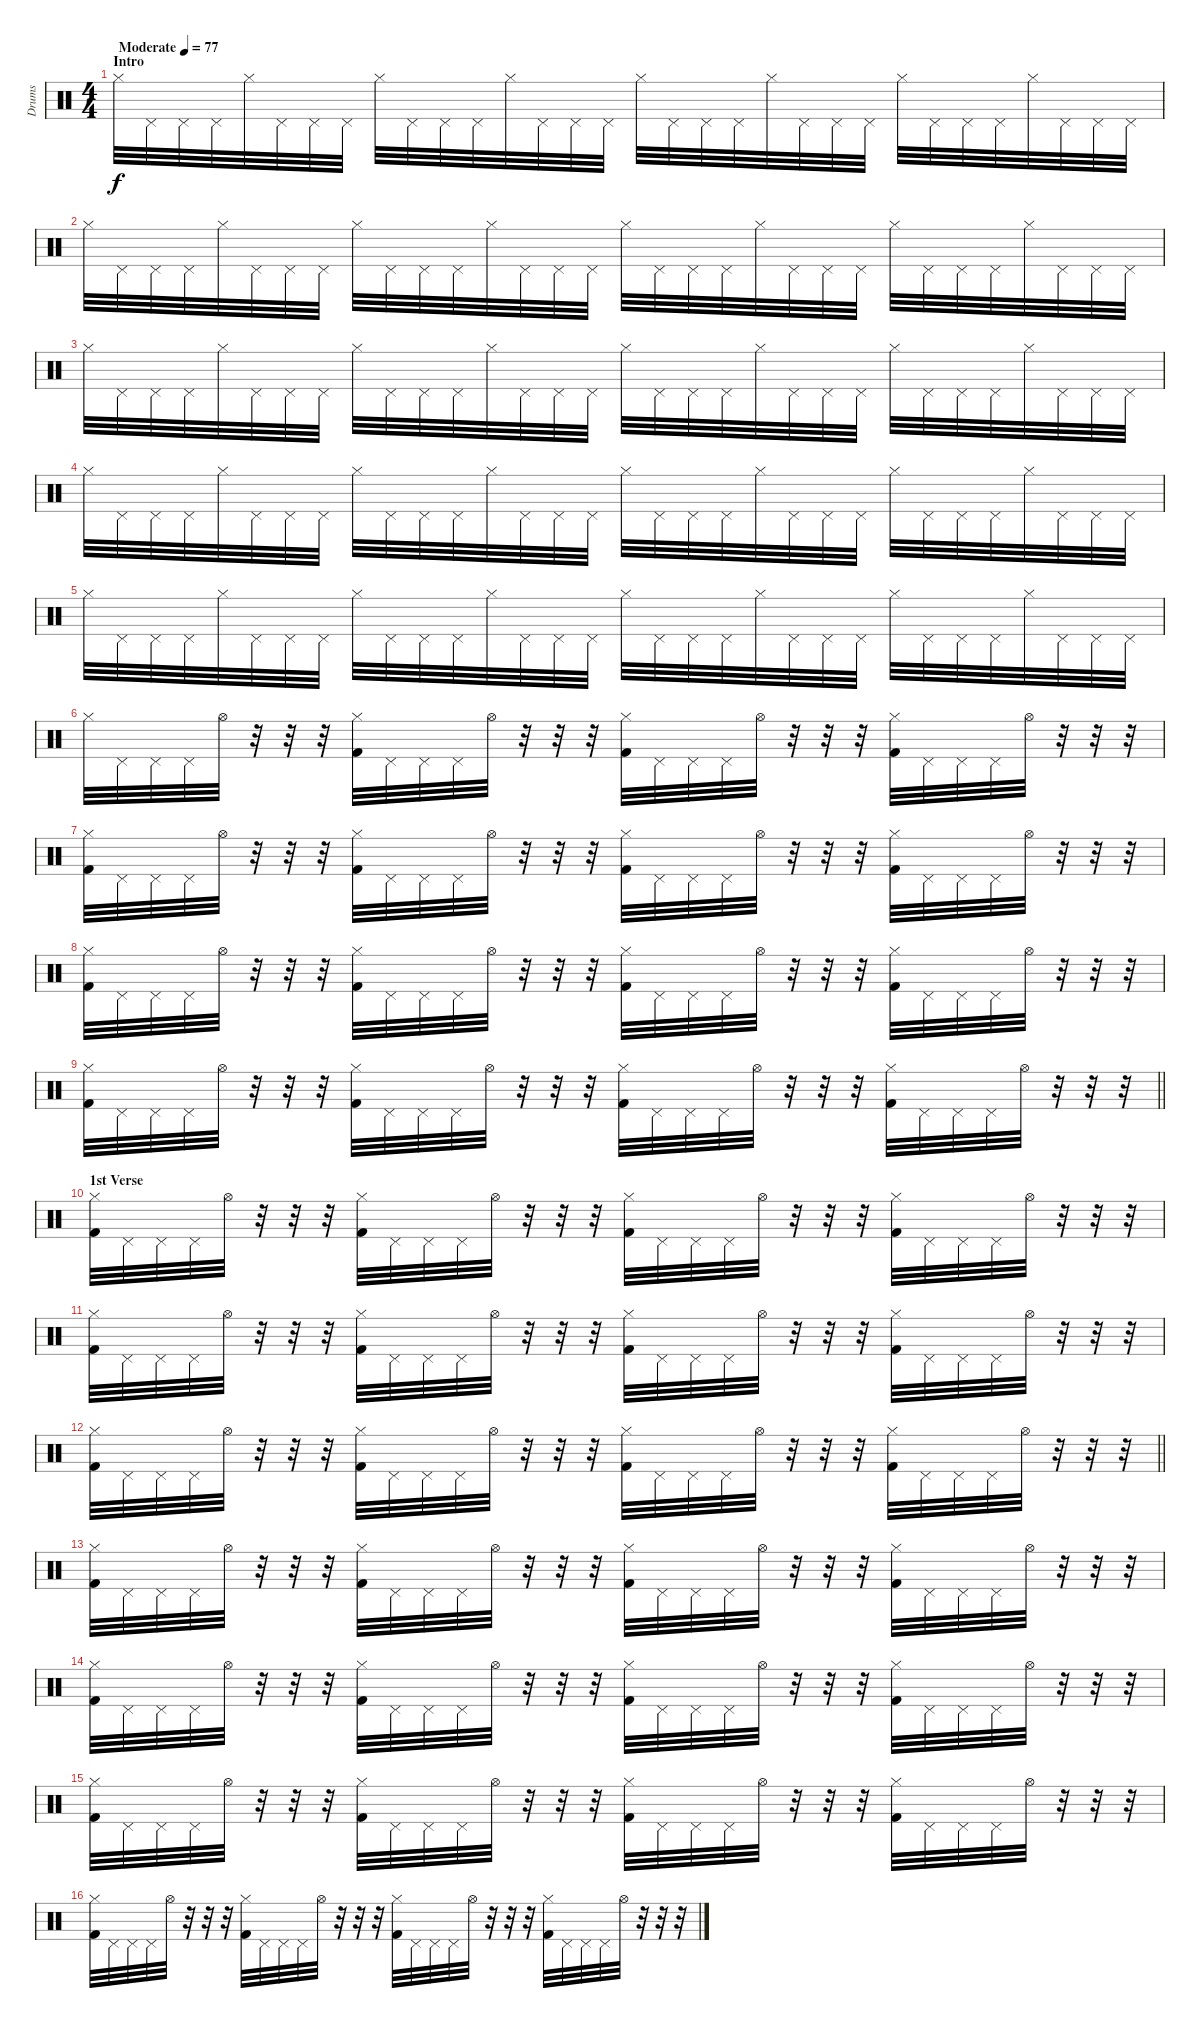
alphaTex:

\track ("Drums" "Drums") {instrument percussion}
\staff {score}
\articulation defaults
\ts (4 4)
\section ("" "Intro")
\tempo (77 "Moderate")
\clef neutral
\ks c "Hi-Hat (closed)".32{dy f} "Pedal Hi-Hat (hit)".32 "Pedal Hi-Hat (hit)".32 "Pedal Hi-Hat (hit)".32 "Hi-Hat (closed)".32 "Pedal Hi-Hat (hit)".32 "Pedal Hi-Hat (hit)".32 "Pedal Hi-Hat (hit)".32 "Hi-Hat (closed)".32 "Pedal Hi-Hat (hit)".32 "Pedal Hi-Hat (hit)".32 "Pedal Hi-Hat (hit)".32 "Hi-Hat (closed)".32 "Pedal Hi-Hat (hit)".32 "Pedal Hi-Hat (hit)".32 "Pedal Hi-Hat (hit)".32 "Hi-Hat (closed)".32 "Pedal Hi-Hat (hit)".32 "Pedal Hi-Hat (hit)".32 "Pedal Hi-Hat (hit)".32 "Hi-Hat (closed)".32 "Pedal Hi-Hat (hit)".32 "Pedal Hi-Hat (hit)".32 "Pedal Hi-Hat (hit)".32 "Hi-Hat (closed)".32 "Pedal Hi-Hat (hit)".32 "Pedal Hi-Hat (hit)".32 "Pedal Hi-Hat (hit)".32 "Hi-Hat (closed)".32 "Pedal Hi-Hat (hit)".32 "Pedal Hi-Hat (hit)".32 "Pedal Hi-Hat (hit)".32
|
"Hi-Hat (closed)".32 "Pedal Hi-Hat (hit)".32 "Pedal Hi-Hat (hit)".32 "Pedal Hi-Hat (hit)".32 "Hi-Hat (closed)".32 "Pedal Hi-Hat (hit)".32 "Pedal Hi-Hat (hit)".32 "Pedal Hi-Hat (hit)".32 "Hi-Hat (closed)".32 "Pedal Hi-Hat (hit)".32 "Pedal Hi-Hat (hit)".32 "Pedal Hi-Hat (hit)".32 "Hi-Hat (closed)".32 "Pedal Hi-Hat (hit)".32 "Pedal Hi-Hat (hit)".32 "Pedal Hi-Hat (hit)".32 "Hi-Hat (closed)".32 "Pedal Hi-Hat (hit)".32 "Pedal Hi-Hat (hit)".32 "Pedal Hi-Hat (hit)".32 "Hi-Hat (closed)".32 "Pedal Hi-Hat (hit)".32 "Pedal Hi-Hat (hit)".32 "Pedal Hi-Hat (hit)".32 "Hi-Hat (closed)".32 "Pedal Hi-Hat (hit)".32 "Pedal Hi-Hat (hit)".32 "Pedal Hi-Hat (hit)".32 "Hi-Hat (closed)".32 "Pedal Hi-Hat (hit)".32 "Pedal Hi-Hat (hit)".32 "Pedal Hi-Hat (hit)".32 |
"Hi-Hat (closed)".32 "Pedal Hi-Hat (hit)".32 "Pedal Hi-Hat (hit)".32 "Pedal Hi-Hat (hit)".32 "Hi-Hat (closed)".32 "Pedal Hi-Hat (hit)".32 "Pedal Hi-Hat (hit)".32 "Pedal Hi-Hat (hit)".32 "Hi-Hat (closed)".32 "Pedal Hi-Hat (hit)".32 "Pedal Hi-Hat (hit)".32 "Pedal Hi-Hat (hit)".32 "Hi-Hat (closed)".32 "Pedal Hi-Hat (hit)".32 "Pedal Hi-Hat (hit)".32 "Pedal Hi-Hat (hit)".32 "Hi-Hat (closed)".32 "Pedal Hi-Hat (hit)".32 "Pedal Hi-Hat (hit)".32 "Pedal Hi-Hat (hit)".32 "Hi-Hat (closed)".32 "Pedal Hi-Hat (hit)".32 "Pedal Hi-Hat (hit)".32 "Pedal Hi-Hat (hit)".32 "Hi-Hat (closed)".32 "Pedal Hi-Hat (hit)".32 "Pedal Hi-Hat (hit)".32 "Pedal Hi-Hat (hit)".32 "Hi-Hat (closed)".32 "Pedal Hi-Hat (hit)".32 "Pedal Hi-Hat (hit)".32 "Pedal Hi-Hat (hit)".32 |
"Hi-Hat (closed)".32 "Pedal Hi-Hat (hit)".32 "Pedal Hi-Hat (hit)".32 "Pedal Hi-Hat (hit)".32 "Hi-Hat (closed)".32 "Pedal Hi-Hat (hit)".32 "Pedal Hi-Hat (hit)".32 "Pedal Hi-Hat (hit)".32 "Hi-Hat (closed)".32 "Pedal Hi-Hat (hit)".32 "Pedal Hi-Hat (hit)".32 "Pedal Hi-Hat (hit)".32 "Hi-Hat (closed)".32 "Pedal Hi-Hat (hit)".32 "Pedal Hi-Hat (hit)".32 "Pedal Hi-Hat (hit)".32 "Hi-Hat (closed)".32 "Pedal Hi-Hat (hit)".32 "Pedal Hi-Hat (hit)".32 "Pedal Hi-Hat (hit)".32 "Hi-Hat (closed)".32 "Pedal Hi-Hat (hit)".32 "Pedal Hi-Hat (hit)".32 "Pedal Hi-Hat (hit)".32 "Hi-Hat (closed)".32 "Pedal Hi-Hat (hit)".32 "Pedal Hi-Hat (hit)".32 "Pedal Hi-Hat (hit)".32 "Hi-Hat (closed)".32 "Pedal Hi-Hat (hit)".32 "Pedal Hi-Hat (hit)".32 "Pedal Hi-Hat (hit)".32 |
"Hi-Hat (closed)".32 "Pedal Hi-Hat (hit)".32 "Pedal Hi-Hat (hit)".32 "Pedal Hi-Hat (hit)".32 "Hi-Hat (closed)".32 "Pedal Hi-Hat (hit)".32 "Pedal Hi-Hat (hit)".32 "Pedal Hi-Hat (hit)".32 "Hi-Hat (closed)".32 "Pedal Hi-Hat (hit)".32 "Pedal Hi-Hat (hit)".32 "Pedal Hi-Hat (hit)".32 "Hi-Hat (closed)".32 "Pedal Hi-Hat (hit)".32 "Pedal Hi-Hat (hit)".32 "Pedal Hi-Hat (hit)".32 "Hi-Hat (closed)".32 "Pedal Hi-Hat (hit)".32 "Pedal Hi-Hat (hit)".32 "Pedal Hi-Hat (hit)".32 "Hi-Hat (closed)".32 "Pedal Hi-Hat (hit)".32 "Pedal Hi-Hat (hit)".32 "Pedal Hi-Hat (hit)".32 "Hi-Hat (closed)".32 "Pedal Hi-Hat (hit)".32 "Pedal Hi-Hat (hit)".32 "Pedal Hi-Hat (hit)".32 "Hi-Hat (closed)".32 "Pedal Hi-Hat (hit)".32 "Pedal Hi-Hat (hit)".32 "Pedal Hi-Hat (hit)".32 |
"Hi-Hat (closed)".32 "Pedal Hi-Hat (hit)".32 "Pedal Hi-Hat (hit)".32 "Pedal Hi-Hat (hit)".32 "Hi-Hat (open)".32 r.32 r.32 r.32 ("Hi-Hat (closed)" "Kick (hit) 2").32 "Pedal Hi-Hat (hit)".32 "Pedal Hi-Hat (hit)".32 "Pedal Hi-Hat (hit)".32 "Hi-Hat (open)".32 r.32 r.32 r.32 ("Hi-Hat (closed)" "Kick (hit) 2").32 "Pedal Hi-Hat (hit)".32 "Pedal Hi-Hat (hit)".32 "Pedal Hi-Hat (hit)".32 "Hi-Hat (open)".32 r.32 r.32 r.32 ("Hi-Hat (closed)" "Kick (hit) 2").32 "Pedal Hi-Hat (hit)".32 "Pedal Hi-Hat (hit)".32 "Pedal Hi-Hat (hit)".32 "Hi-Hat (open)".32 r.32 r.32 r.32 |
("Hi-Hat (closed)" "Kick (hit) 2").32 "Pedal Hi-Hat (hit)".32 "Pedal Hi-Hat (hit)".32 "Pedal Hi-Hat (hit)".32 "Hi-Hat (open)".32 r.32 r.32 r.32 ("Hi-Hat (closed)" "Kick (hit) 2").32 "Pedal Hi-Hat (hit)".32 "Pedal Hi-Hat (hit)".32 "Pedal Hi-Hat (hit)".32 "Hi-Hat (open)".32 r.32 r.32 r.32 ("Hi-Hat (closed)" "Kick (hit) 2").32 "Pedal Hi-Hat (hit)".32 "Pedal Hi-Hat (hit)".32 "Pedal Hi-Hat (hit)".32 "Hi-Hat (open)".32 r.32 r.32 r.32 ("Hi-Hat (closed)" "Kick (hit) 2").32 "Pedal Hi-Hat (hit)".32 "Pedal Hi-Hat (hit)".32 "Pedal Hi-Hat (hit)".32 "Hi-Hat (open)".32 r.32 r.32 r.32 |
("Hi-Hat (closed)" "Kick (hit) 2").32 "Pedal Hi-Hat (hit)".32 "Pedal Hi-Hat (hit)".32 "Pedal Hi-Hat (hit)".32 "Hi-Hat (open)".32 r.32 r.32 r.32 ("Hi-Hat (closed)" "Kick (hit) 2").32 "Pedal Hi-Hat (hit)".32 "Pedal Hi-Hat (hit)".32 "Pedal Hi-Hat (hit)".32 "Hi-Hat (open)".32 r.32 r.32 r.32 ("Hi-Hat (closed)" "Kick (hit) 2").32 "Pedal Hi-Hat (hit)".32 "Pedal Hi-Hat (hit)".32 "Pedal Hi-Hat (hit)".32 "Hi-Hat (open)".32 r.32 r.32 r.32 ("Hi-Hat (closed)" "Kick (hit) 2").32 "Pedal Hi-Hat (hit)".32 "Pedal Hi-Hat (hit)".32 "Pedal Hi-Hat (hit)".32 "Hi-Hat (open)".32 r.32 r.32 r.32 |
\barLineRight lightlight
("Hi-Hat (closed)" "Kick (hit) 2").32 "Pedal Hi-Hat (hit)".32 "Pedal Hi-Hat (hit)".32 "Pedal Hi-Hat (hit)".32 "Hi-Hat (open)".32 r.32 r.32 r.32 ("Hi-Hat (closed)" "Kick (hit) 2").32 "Pedal Hi-Hat (hit)".32 "Pedal Hi-Hat (hit)".32 "Pedal Hi-Hat (hit)".32 "Hi-Hat (open)".32 r.32 r.32 r.32 ("Hi-Hat (closed)" "Kick (hit) 2").32 "Pedal Hi-Hat (hit)".32 "Pedal Hi-Hat (hit)".32 "Pedal Hi-Hat (hit)".32 "Hi-Hat (open)".32 r.32 r.32 r.32 ("Hi-Hat (closed)" "Kick (hit) 2").32 "Pedal Hi-Hat (hit)".32 "Pedal Hi-Hat (hit)".32 "Pedal Hi-Hat (hit)".32 "Hi-Hat (open)".32 r.32 r.32 r.32 |
\section ("" "1st Verse")
("Hi-Hat (closed)" "Kick (hit) 2").32 "Pedal Hi-Hat (hit)".32 "Pedal Hi-Hat (hit)".32 "Pedal Hi-Hat (hit)".32 "Hi-Hat (open)".32 r.32 r.32 r.32 ("Hi-Hat (closed)" "Kick (hit) 2").32 "Pedal Hi-Hat (hit)".32 "Pedal Hi-Hat (hit)".32 "Pedal Hi-Hat (hit)".32 "Hi-Hat (open)".32 r.32 r.32 r.32 ("Hi-Hat (closed)" "Kick (hit) 2").32 "Pedal Hi-Hat (hit)".32 "Pedal Hi-Hat (hit)".32 "Pedal Hi-Hat (hit)".32 "Hi-Hat (open)".32 r.32 r.32 r.32 ("Hi-Hat (closed)" "Kick (hit) 2").32 "Pedal Hi-Hat (hit)".32 "Pedal Hi-Hat (hit)".32 "Pedal Hi-Hat (hit)".32 "Hi-Hat (open)".32 r.32 r.32 r.32 |
("Hi-Hat (closed)" "Kick (hit) 2").32 "Pedal Hi-Hat (hit)".32 "Pedal Hi-Hat (hit)".32 "Pedal Hi-Hat (hit)".32 "Hi-Hat (open)".32 r.32 r.32 r.32 ("Hi-Hat (closed)" "Kick (hit) 2").32 "Pedal Hi-Hat (hit)".32 "Pedal Hi-Hat (hit)".32 "Pedal Hi-Hat (hit)".32 "Hi-Hat (open)".32 r.32 r.32 r.32 ("Hi-Hat (closed)" "Kick (hit) 2").32 "Pedal Hi-Hat (hit)".32 "Pedal Hi-Hat (hit)".32 "Pedal Hi-Hat (hit)".32 "Hi-Hat (open)".32 r.32 r.32 r.32 ("Hi-Hat (closed)" "Kick (hit) 2").32 "Pedal Hi-Hat (hit)".32 "Pedal Hi-Hat (hit)".32 "Pedal Hi-Hat (hit)".32 "Hi-Hat (open)".32 r.32 r.32 r.32 |
\barLineRight lightlight
("Hi-Hat (closed)" "Kick (hit) 2").32 "Pedal Hi-Hat (hit)".32 "Pedal Hi-Hat (hit)".32 "Pedal Hi-Hat (hit)".32 "Hi-Hat (open)".32 r.32 r.32 r.32 ("Hi-Hat (closed)" "Kick (hit) 2").32 "Pedal Hi-Hat (hit)".32 "Pedal Hi-Hat (hit)".32 "Pedal Hi-Hat (hit)".32 "Hi-Hat (open)".32 r.32 r.32 r.32 ("Hi-Hat (closed)" "Kick (hit) 2").32 "Pedal Hi-Hat (hit)".32 "Pedal Hi-Hat (hit)".32 "Pedal Hi-Hat (hit)".32 "Hi-Hat (open)".32 r.32 r.32 r.32 ("Hi-Hat (closed)" "Kick (hit) 2").32 "Pedal Hi-Hat (hit)".32 "Pedal Hi-Hat (hit)".32 "Pedal Hi-Hat (hit)".32 "Hi-Hat (open)".32 r.32 r.32 r.32 |
("Hi-Hat (closed)" "Kick (hit) 2").32 "Pedal Hi-Hat (hit)".32 "Pedal Hi-Hat (hit)".32 "Pedal Hi-Hat (hit)".32 "Hi-Hat (open)".32 r.32 r.32 r.32 ("Hi-Hat (closed)" "Kick (hit) 2").32 "Pedal Hi-Hat (hit)".32 "Pedal Hi-Hat (hit)".32 "Pedal Hi-Hat (hit)".32 "Hi-Hat (open)".32 r.32 r.32 r.32 ("Hi-Hat (closed)" "Kick (hit) 2").32 "Pedal Hi-Hat (hit)".32 "Pedal Hi-Hat (hit)".32 "Pedal Hi-Hat (hit)".32 "Hi-Hat (open)".32 r.32 r.32 r.32 ("Hi-Hat (closed)" "Kick (hit) 2").32 "Pedal Hi-Hat (hit)".32 "Pedal Hi-Hat (hit)".32 "Pedal Hi-Hat (hit)".32 "Hi-Hat (open)".32 r.32 r.32 r.32 |
("Hi-Hat (closed)" "Kick (hit) 2").32 "Pedal Hi-Hat (hit)".32 "Pedal Hi-Hat (hit)".32 "Pedal Hi-Hat (hit)".32 "Hi-Hat (open)".32 r.32 r.32 r.32 ("Hi-Hat (closed)" "Kick (hit) 2").32 "Pedal Hi-Hat (hit)".32 "Pedal Hi-Hat (hit)".32 "Pedal Hi-Hat (hit)".32 "Hi-Hat (open)".32 r.32 r.32 r.32 ("Hi-Hat (closed)" "Kick (hit) 2").32 "Pedal Hi-Hat (hit)".32 "Pedal Hi-Hat (hit)".32 "Pedal Hi-Hat (hit)".32 "Hi-Hat (open)".32 r.32 r.32 r.32 ("Hi-Hat (closed)" "Kick (hit) 2").32 "Pedal Hi-Hat (hit)".32 "Pedal Hi-Hat (hit)".32 "Pedal Hi-Hat (hit)".32 "Hi-Hat (open)".32 r.32 r.32 r.32 |
("Hi-Hat (closed)" "Kick (hit) 2").32 "Pedal Hi-Hat (hit)".32 "Pedal Hi-Hat (hit)".32 "Pedal Hi-Hat (hit)".32 "Hi-Hat (open)".32 r.32 r.32 r.32 ("Hi-Hat (closed)" "Kick (hit) 2").32 "Pedal Hi-Hat (hit)".32 "Pedal Hi-Hat (hit)".32 "Pedal Hi-Hat (hit)".32 "Hi-Hat (open)".32 r.32 r.32 r.32 ("Hi-Hat (closed)" "Kick (hit) 2").32 "Pedal Hi-Hat (hit)".32 "Pedal Hi-Hat (hit)".32 "Pedal Hi-Hat (hit)".32 "Hi-Hat (open)".32 r.32 r.32 r.32 ("Hi-Hat (closed)" "Kick (hit) 2").32 "Pedal Hi-Hat (hit)".32 "Pedal Hi-Hat (hit)".32 "Pedal Hi-Hat (hit)".32 "Hi-Hat (open)".32 r.32 r.32 r.32 |
("Hi-Hat (closed)" "Kick (hit) 2").32 "Pedal Hi-Hat (hit)".32 "Pedal Hi-Hat (hit)".32 "Pedal Hi-Hat (hit)".32 "Hi-Hat (open)".32 r.32 r.32 r.32 ("Hi-Hat (closed)" "Kick (hit) 2").32 "Pedal Hi-Hat (hit)".32 "Pedal Hi-Hat (hit)".32 "Pedal Hi-Hat (hit)".32 "Hi-Hat (open)".32 r.32 r.32 r.32 ("Hi-Hat (closed)" "Kick (hit) 2").32 "Pedal Hi-Hat (hit)".32 "Pedal Hi-Hat (hit)".32 "Pedal Hi-Hat (hit)".32 "Hi-Hat (open)".32 r.32 r.32 r.32 ("Hi-Hat (closed)" "Kick (hit) 2").32 "Pedal Hi-Hat (hit)".32 "Pedal Hi-Hat (hit)".32 "Pedal Hi-Hat (hit)".32 "Hi-Hat (open)".32 r.32 r.32 r.32
